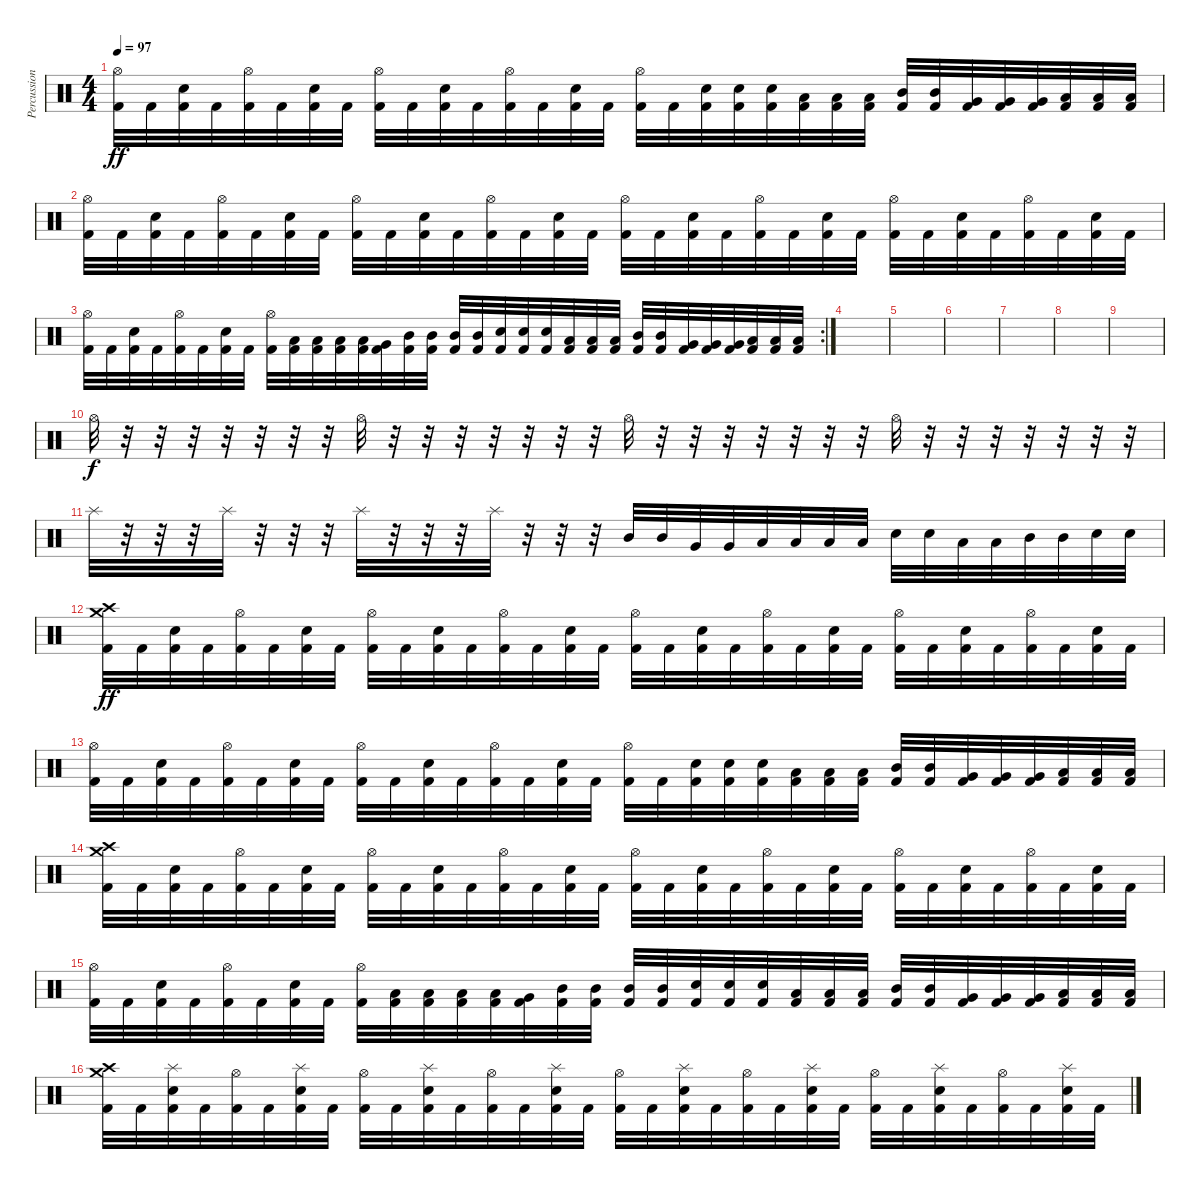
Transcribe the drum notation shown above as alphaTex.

\track ("Percussion" "Percussion") {instrument percussion}
\staff {score}
\articulation defaults
\ts (4 4)
\tempo 97
\clef neutral
\ks c
("Hi-Hat (open)" "Kick (hit) 2").32{dy ff} "Kick (hit) 2".32 ("Snare (hit) 2" "Kick (hit) 2").32 "Kick (hit) 2".32 ("Hi-Hat (open)" "Kick (hit) 2").32 "Kick (hit) 2".32 ("Snare (hit) 2" "Kick (hit) 2").32 "Kick (hit) 2".32 ("Hi-Hat (open)" "Kick (hit) 2").32 "Kick (hit) 2".32 ("Snare (hit) 2" "Kick (hit) 2").32 "Kick (hit) 2".32 ("Hi-Hat (open)" "Kick (hit) 2").32 "Kick (hit) 2".32 ("Snare (hit) 2" "Kick (hit) 2").32 "Kick (hit) 2".32 ("Hi-Hat (open)" "Kick (hit) 2").32 "Kick (hit) 2".32 ("Snare (hit) 2" "Kick (hit) 2").32 ("Snare (hit) 2" "Kick (hit) 2").32 ("Snare (hit) 2" "Kick (hit) 2").32 ("Low Tom (hit)" "Kick (hit) 2").32 ("Low Tom (hit)" "Kick (hit) 2").32 ("Low Tom (hit)" "Kick (hit) 2").32 ("Mid Tom (hit)" "Kick (hit) 2").32 ("Mid Tom (hit)" "Kick (hit) 2").32 ("Very Low Tom (hit)" "Kick (hit) 2").32 ("Very Low Tom (hit)" "Kick (hit) 2").32 ("Very Low Tom (hit)" "Kick (hit) 2").32 ("Low Floor Tom (hit)" "Kick (hit) 2").32 ("Low Floor Tom (hit)" "Kick (hit) 2").32 ("Low Floor Tom (hit)" "Kick (hit) 2").32 |
("Hi-Hat (open)" "Kick (hit) 2").32 "Kick (hit) 2".32 ("Snare (hit) 2" "Kick (hit) 2").32 "Kick (hit) 2".32 ("Hi-Hat (open)" "Kick (hit) 2").32 "Kick (hit) 2".32 ("Snare (hit) 2" "Kick (hit) 2").32 "Kick (hit) 2".32 ("Hi-Hat (open)" "Kick (hit) 2").32 "Kick (hit) 2".32 ("Snare (hit) 2" "Kick (hit) 2").32 "Kick (hit) 2".32 ("Hi-Hat (open)" "Kick (hit) 2").32 "Kick (hit) 2".32 ("Snare (hit) 2" "Kick (hit) 2").32 "Kick (hit) 2".32 ("Hi-Hat (open)" "Kick (hit) 2").32 "Kick (hit) 2".32 ("Snare (hit) 2" "Kick (hit) 2").32 "Kick (hit) 2".32 ("Hi-Hat (open)" "Kick (hit) 2").32 "Kick (hit) 2".32 ("Snare (hit) 2" "Kick (hit) 2").32 "Kick (hit) 2".32 ("Hi-Hat (open)" "Kick (hit) 2").32 "Kick (hit) 2".32 ("Snare (hit) 2" "Kick (hit) 2").32 "Kick (hit) 2".32 ("Hi-Hat (open)" "Kick (hit) 2").32 "Kick (hit) 2".32 ("Snare (hit) 2" "Kick (hit) 2").32 "Kick (hit) 2".32 |
\rc 2
("Hi-Hat (open)" "Kick (hit) 2").32 "Kick (hit) 2".32 ("Snare (hit) 2" "Kick (hit) 2").32 "Kick (hit) 2".32 ("Hi-Hat (open)" "Kick (hit) 2").32 "Kick (hit) 2".32 ("Snare (hit) 2" "Kick (hit) 2").32 "Kick (hit) 2".32 ("Hi-Hat (open)" "Kick (hit) 2").32 ("Low Tom (hit)" "Kick (hit) 2").32 ("Low Floor Tom (hit)" "Kick (hit) 2").32 ("Low Floor Tom (hit)" "Kick (hit) 2").32 ("Low Floor Tom (hit)" "Kick (hit) 2").32 ("Very Low Tom (hit)" "Kick (hit) 2").32 ("Mid Tom (hit)" "Kick (hit) 2").32 ("Mid Tom (hit)" "Kick (hit) 2").32 ("Mid Tom (hit)" "Kick (hit) 2").32 ("Mid Tom (hit)" "Kick (hit) 2").32 ("Snare (hit) 2" "Kick (hit) 2").32 ("Snare (hit) 2" "Kick (hit) 2").32 ("Snare (hit) 2" "Kick (hit) 2").32 ("Low Tom (hit)" "Kick (hit) 2").32 ("Low Tom (hit)" "Kick (hit) 2").32 ("Low Tom (hit)" "Kick (hit) 2").32 ("Mid Tom (hit)" "Kick (hit) 2").32 ("Mid Tom (hit)" "Kick (hit) 2").32 ("Very Low Tom (hit)" "Kick (hit) 2").32 ("Very Low Tom (hit)" "Kick (hit) 2").32 ("Very Low Tom (hit)" "Kick (hit) 2").32 ("Low Floor Tom (hit)" "Kick (hit) 2").32 ("Low Floor Tom (hit)" "Kick (hit) 2").32 ("Low Floor Tom (hit)" "Kick (hit) 2").32 |
|
|
|
|
|
|
"Hi-Hat (open)".32{dy f} r.32 r.32 r.32 r.32 r.32 r.32 r.32 "Hi-Hat (open)".32 r.32 r.32 r.32 r.32 r.32 r.32 r.32 "Hi-Hat (open)".32 r.32 r.32 r.32 r.32 r.32 r.32 r.32 "Hi-Hat (open)".32 r.32 r.32 r.32 r.32 r.32 r.32 r.32 |
"Splash (hit)".32 r.32 r.32 r.32 "Splash (hit)".32 r.32 r.32 r.32 "Splash (hit)".32 r.32 r.32 r.32 "Splash (hit)".32 r.32 r.32 r.32 "Mid Tom (hit)".32 "Mid Tom (hit)".32 "Very Low Tom (hit)".32 "Very Low Tom (hit)".32 "Low Floor Tom (hit)".32 "Low Floor Tom (hit)".32 "Low Tom (hit)".32 "Low Tom (hit)".32 "Snare (hit) 2".32 "Snare (hit) 2".32 "Low Floor Tom (hit)".32 "Low Floor Tom (hit)".32 "Mid Tom (hit)".32 "Mid Tom (hit)".32 "Snare (hit) 2".32 "Snare (hit) 2".32 |
("Crash medium (hit)" "Crash high (hit)" "Kick (hit) 2").32{dy ff} "Kick (hit) 2".32 ("Snare (hit) 2" "Kick (hit) 2").32 "Kick (hit) 2".32 ("Hi-Hat (open)" "Kick (hit) 2").32 "Kick (hit) 2".32 ("Snare (hit) 2" "Kick (hit) 2").32 "Kick (hit) 2".32 ("Hi-Hat (open)" "Kick (hit) 2").32 "Kick (hit) 2".32 ("Snare (hit) 2" "Kick (hit) 2").32 "Kick (hit) 2".32 ("Hi-Hat (open)" "Kick (hit) 2").32 "Kick (hit) 2".32 ("Snare (hit) 2" "Kick (hit) 2").32 "Kick (hit) 2".32 ("Hi-Hat (open)" "Kick (hit) 2").32 "Kick (hit) 2".32 ("Snare (hit) 2" "Kick (hit) 2").32 "Kick (hit) 2".32 ("Hi-Hat (open)" "Kick (hit) 2").32 "Kick (hit) 2".32 ("Snare (hit) 2" "Kick (hit) 2").32 "Kick (hit) 2".32 ("Hi-Hat (open)" "Kick (hit) 2").32 "Kick (hit) 2".32 ("Snare (hit) 2" "Kick (hit) 2").32 "Kick (hit) 2".32 ("Hi-Hat (open)" "Kick (hit) 2").32 "Kick (hit) 2".32 ("Snare (hit) 2" "Kick (hit) 2").32 "Kick (hit) 2".32 |
("Hi-Hat (open)" "Kick (hit) 2").32 "Kick (hit) 2".32 ("Snare (hit) 2" "Kick (hit) 2").32 "Kick (hit) 2".32 ("Hi-Hat (open)" "Kick (hit) 2").32 "Kick (hit) 2".32 ("Snare (hit) 2" "Kick (hit) 2").32 "Kick (hit) 2".32 ("Hi-Hat (open)" "Kick (hit) 2").32 "Kick (hit) 2".32 ("Snare (hit) 2" "Kick (hit) 2").32 "Kick (hit) 2".32 ("Hi-Hat (open)" "Kick (hit) 2").32 "Kick (hit) 2".32 ("Snare (hit) 2" "Kick (hit) 2").32 "Kick (hit) 2".32 ("Hi-Hat (open)" "Kick (hit) 2").32 "Kick (hit) 2".32 ("Snare (hit) 2" "Kick (hit) 2").32 ("Snare (hit) 2" "Kick (hit) 2").32 ("Snare (hit) 2" "Kick (hit) 2").32 ("Low Tom (hit)" "Kick (hit) 2").32 ("Low Tom (hit)" "Kick (hit) 2").32 ("Low Tom (hit)" "Kick (hit) 2").32 ("Mid Tom (hit)" "Kick (hit) 2").32 ("Mid Tom (hit)" "Kick (hit) 2").32 ("Very Low Tom (hit)" "Kick (hit) 2").32 ("Very Low Tom (hit)" "Kick (hit) 2").32 ("Very Low Tom (hit)" "Kick (hit) 2").32 ("Low Floor Tom (hit)" "Kick (hit) 2").32 ("Low Floor Tom (hit)" "Kick (hit) 2").32 ("Low Floor Tom (hit)" "Kick (hit) 2").32 |
("Crash medium (hit)" "Crash high (hit)" "Kick (hit) 2").32 "Kick (hit) 2".32 ("Snare (hit) 2" "Kick (hit) 2").32 "Kick (hit) 2".32 ("Hi-Hat (open)" "Kick (hit) 2").32 "Kick (hit) 2".32 ("Snare (hit) 2" "Kick (hit) 2").32 "Kick (hit) 2".32 ("Hi-Hat (open)" "Kick (hit) 2").32 "Kick (hit) 2".32 ("Snare (hit) 2" "Kick (hit) 2").32 "Kick (hit) 2".32 ("Hi-Hat (open)" "Kick (hit) 2").32 "Kick (hit) 2".32 ("Snare (hit) 2" "Kick (hit) 2").32 "Kick (hit) 2".32 ("Hi-Hat (open)" "Kick (hit) 2").32 "Kick (hit) 2".32 ("Snare (hit) 2" "Kick (hit) 2").32 "Kick (hit) 2".32 ("Hi-Hat (open)" "Kick (hit) 2").32 "Kick (hit) 2".32 ("Snare (hit) 2" "Kick (hit) 2").32 "Kick (hit) 2".32 ("Hi-Hat (open)" "Kick (hit) 2").32 "Kick (hit) 2".32 ("Snare (hit) 2" "Kick (hit) 2").32 "Kick (hit) 2".32 ("Hi-Hat (open)" "Kick (hit) 2").32 "Kick (hit) 2".32 ("Snare (hit) 2" "Kick (hit) 2").32 "Kick (hit) 2".32 |
("Hi-Hat (open)" "Kick (hit) 2").32 "Kick (hit) 2".32 ("Snare (hit) 2" "Kick (hit) 2").32 "Kick (hit) 2".32 ("Hi-Hat (open)" "Kick (hit) 2").32 "Kick (hit) 2".32 ("Snare (hit) 2" "Kick (hit) 2").32 "Kick (hit) 2".32 ("Hi-Hat (open)" "Kick (hit) 2").32 ("Low Tom (hit)" "Kick (hit) 2").32 ("Low Floor Tom (hit)" "Kick (hit) 2").32 ("Low Floor Tom (hit)" "Kick (hit) 2").32 ("Low Floor Tom (hit)" "Kick (hit) 2").32 ("Very Low Tom (hit)" "Kick (hit) 2").32 ("Mid Tom (hit)" "Kick (hit) 2").32 ("Mid Tom (hit)" "Kick (hit) 2").32 ("Mid Tom (hit)" "Kick (hit) 2").32 ("Mid Tom (hit)" "Kick (hit) 2").32 ("Snare (hit) 2" "Kick (hit) 2").32 ("Snare (hit) 2" "Kick (hit) 2").32 ("Snare (hit) 2" "Kick (hit) 2").32 ("Low Tom (hit)" "Kick (hit) 2").32 ("Low Tom (hit)" "Kick (hit) 2").32 ("Low Tom (hit)" "Kick (hit) 2").32 ("Mid Tom (hit)" "Kick (hit) 2").32 ("Mid Tom (hit)" "Kick (hit) 2").32 ("Very Low Tom (hit)" "Kick (hit) 2").32 ("Very Low Tom (hit)" "Kick (hit) 2").32 ("Very Low Tom (hit)" "Kick (hit) 2").32 ("Low Floor Tom (hit)" "Kick (hit) 2").32 ("Low Floor Tom (hit)" "Kick (hit) 2").32 ("Low Floor Tom (hit)" "Kick (hit) 2").32 |
("Crash medium (hit)" "Crash high (hit)" "Kick (hit) 2").32 "Kick (hit) 2".32 ("Splash (hit)" "Snare (hit) 2" "Kick (hit) 2").32 "Kick (hit) 2".32 ("Hi-Hat (open)" "Kick (hit) 2").32 "Kick (hit) 2".32 ("Splash (hit)" "Snare (hit) 2" "Kick (hit) 2").32 "Kick (hit) 2".32 ("Hi-Hat (open)" "Kick (hit) 2").32 "Kick (hit) 2".32 ("Splash (hit)" "Snare (hit) 2" "Kick (hit) 2").32 "Kick (hit) 2".32 ("Hi-Hat (open)" "Kick (hit) 2").32 "Kick (hit) 2".32 ("Splash (hit)" "Snare (hit) 2" "Kick (hit) 2").32 "Kick (hit) 2".32 ("Hi-Hat (open)" "Kick (hit) 2").32 "Kick (hit) 2".32 ("Splash (hit)" "Snare (hit) 2" "Kick (hit) 2").32 "Kick (hit) 2".32 ("Hi-Hat (open)" "Kick (hit) 2").32 "Kick (hit) 2".32 ("Splash (hit)" "Snare (hit) 2" "Kick (hit) 2").32 "Kick (hit) 2".32 ("Hi-Hat (open)" "Kick (hit) 2").32 "Kick (hit) 2".32 ("Splash (hit)" "Snare (hit) 2" "Kick (hit) 2").32 "Kick (hit) 2".32 ("Hi-Hat (open)" "Kick (hit) 2").32 "Kick (hit) 2".32 ("Splash (hit)" "Snare (hit) 2" "Kick (hit) 2").32 "Kick (hit) 2".32
